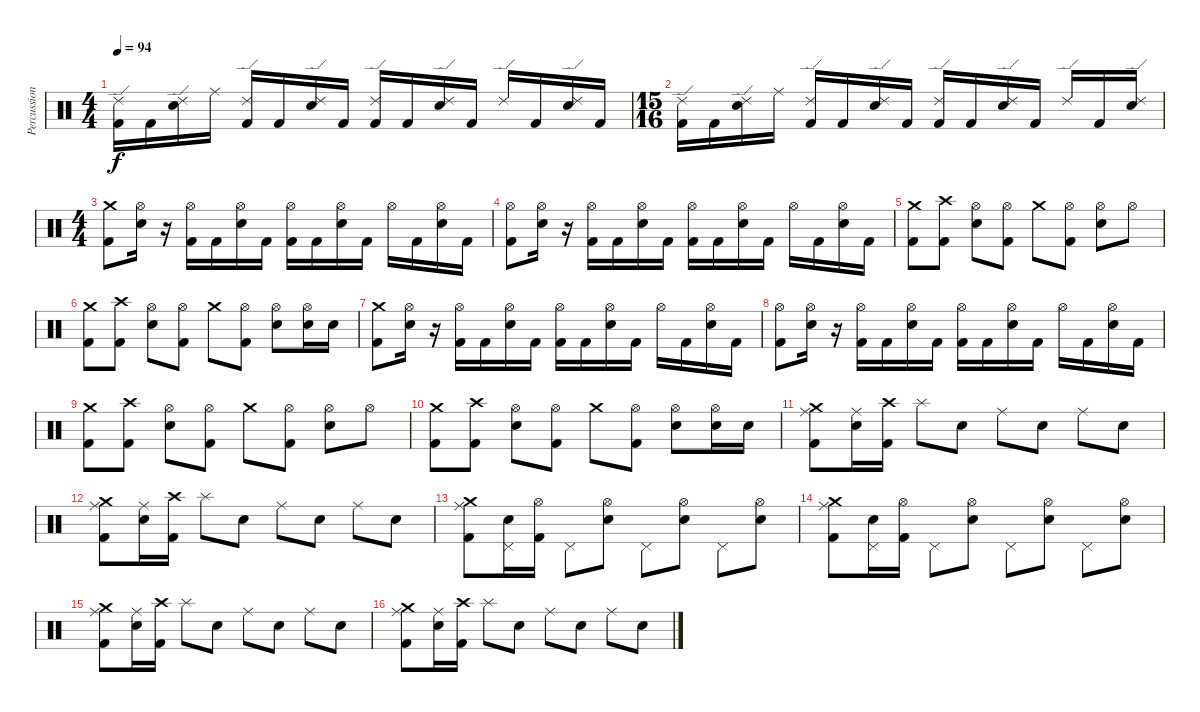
\track ("Percussion" "Percussion") {instrument percussion}
\staff {score}
\articulation defaults
\ts (4 4)
\tempo 94
\clef neutral
\ks c
("Ride (edge) 2" "Kick (hit) 2").16{dy f volume 10} "Kick (hit) 2".16 ("Ride (edge) 2" "Electric Snare (hit)").16 "Ride (middle)".16 ("Ride (edge) 2" "Kick (hit) 2").16 "Kick (hit) 2".16 ("Ride (edge) 2" "Electric Snare (hit)").16 "Kick (hit) 2".16 ("Ride (edge) 2" "Kick (hit) 2").16 "Kick (hit) 2".16 ("Ride (edge) 2" "Electric Snare (hit)").16 "Kick (hit) 2".16 "Ride (edge) 2".16 "Kick (hit) 2".16 ("Ride (edge) 2" "Electric Snare (hit)").16 "Kick (hit) 2".16 |
\ts (15 16)
("Ride (edge) 2" "Kick (hit) 2").16 "Kick (hit) 2".16 ("Ride (edge) 2" "Electric Snare (hit)").16 "Ride (middle)".16 ("Ride (edge) 2" "Kick (hit) 2").16 "Kick (hit) 2".16 ("Ride (edge) 2" "Electric Snare (hit)").16 "Kick (hit) 2".16 ("Ride (edge) 2" "Kick (hit) 2").16 "Kick (hit) 2".16 ("Ride (edge) 2" "Electric Snare (hit)").16 "Kick (hit) 2".16 "Ride (edge) 2".16 "Kick (hit) 2".16 ("Ride (edge) 2" "Electric Snare (hit)").16 |
\ts (4 4)
("Crash medium (hit)" "Kick (hit) 2").8{volume 16} ("Hi-Hat (open)" "Electric Snare (hit)").16 r.16 ("Hi-Hat (open)" "Kick (hit) 2").16 "Kick (hit) 2".16 ("Hi-Hat (open)" "Electric Snare (hit)").16 "Kick (hit) 2".16 ("Hi-Hat (open)" "Kick (hit) 2").16 "Kick (hit) 2".16 ("Hi-Hat (open)" "Electric Snare (hit)").16 "Kick (hit) 2".16 "Hi-Hat (open)".16 "Kick (hit) 2".16 ("Hi-Hat (open)" "Electric Snare (hit)").16 "Kick (hit) 2".16 |
("Hi-Hat (open)" "Kick (hit) 2").8 ("Hi-Hat (open)" "Electric Snare (hit)").16 r.16 ("Hi-Hat (open)" "Kick (hit) 2").16 "Kick (hit) 2".16 ("Hi-Hat (open)" "Electric Snare (hit)").16 "Kick (hit) 2".16 ("Hi-Hat (open)" "Kick (hit) 2").16 "Kick (hit) 2".16 ("Hi-Hat (open)" "Electric Snare (hit)").16 "Kick (hit) 2".16 "Hi-Hat (open)".16 "Kick (hit) 2".16 ("Hi-Hat (open)" "Electric Snare (hit)").16 "Kick (hit) 2".16 |
("Crash medium (hit)" "Kick (hit) 2").8 ("Crash high (hit)" "Kick (hit) 2").8 ("Hi-Hat (open)" "Electric Snare (hit)").8 ("Hi-Hat (open)" "Kick (hit) 2").8 "Crash medium (hit)".8 ("Hi-Hat (open)" "Kick (hit) 2").8 ("Hi-Hat (open)" "Electric Snare (hit)").8 "Hi-Hat (open)".8 |
("Crash medium (hit)" "Kick (hit) 2").8 ("Crash high (hit)" "Kick (hit) 2").8 ("Hi-Hat (open)" "Electric Snare (hit)").8 ("Hi-Hat (open)" "Kick (hit) 2").8 "Crash medium (hit)".8 ("Hi-Hat (open)" "Kick (hit) 2").8 ("Hi-Hat (open)" "Electric Snare (hit)").8 ("Hi-Hat (open)" "Electric Snare (hit)").16 "Electric Snare (hit)".16 |
("Crash medium (hit)" "Kick (hit) 2").8{volume 16} ("Hi-Hat (open)" "Electric Snare (hit)").16 r.16 ("Hi-Hat (open)" "Kick (hit) 2").16 "Kick (hit) 2".16 ("Hi-Hat (open)" "Electric Snare (hit)").16 "Kick (hit) 2".16 ("Hi-Hat (open)" "Kick (hit) 2").16 "Kick (hit) 2".16 ("Hi-Hat (open)" "Electric Snare (hit)").16 "Kick (hit) 2".16 "Hi-Hat (open)".16 "Kick (hit) 2".16 ("Hi-Hat (open)" "Electric Snare (hit)").16 "Kick (hit) 2".16 |
("Hi-Hat (open)" "Kick (hit) 2").8 ("Hi-Hat (open)" "Electric Snare (hit)").16 r.16 ("Hi-Hat (open)" "Kick (hit) 2").16 "Kick (hit) 2".16 ("Hi-Hat (open)" "Electric Snare (hit)").16 "Kick (hit) 2".16 ("Hi-Hat (open)" "Kick (hit) 2").16 "Kick (hit) 2".16 ("Hi-Hat (open)" "Electric Snare (hit)").16 "Kick (hit) 2".16 "Hi-Hat (open)".16 "Kick (hit) 2".16 ("Hi-Hat (open)" "Electric Snare (hit)").16 "Kick (hit) 2".16 |
("Crash medium (hit)" "Kick (hit) 2").8 ("Crash high (hit)" "Kick (hit) 2").8 ("Hi-Hat (open)" "Electric Snare (hit)").8 ("Hi-Hat (open)" "Kick (hit) 2").8 "Crash medium (hit)".8 ("Hi-Hat (open)" "Kick (hit) 2").8 ("Hi-Hat (open)" "Electric Snare (hit)").8 "Hi-Hat (open)".8 |
("Crash medium (hit)" "Kick (hit) 2").8 ("Crash high (hit)" "Kick (hit) 2").8 ("Hi-Hat (open)" "Electric Snare (hit)").8 ("Hi-Hat (open)" "Kick (hit) 2").8 "Crash medium (hit)".8 ("Hi-Hat (open)" "Kick (hit) 2").8 ("Hi-Hat (open)" "Electric Snare (hit)").8 ("Hi-Hat (open)" "Electric Snare (hit)").16 "Electric Snare (hit)".16 |
("Crash medium (hit)" "Ride (middle)" "Kick (hit) 2").8 ("Ride (middle)" "Electric Snare (hit)").16 ("Crash high (hit)" "Kick (hit) 2").16 "Splash (hit)".8 "Electric Snare (hit)".8 "Ride (middle)".8 "Electric Snare (hit)".8 "Ride (middle)".8 "Electric Snare (hit)".8 |
("Crash medium (hit)" "Ride (middle)" "Kick (hit) 2").8 ("Ride (middle)" "Electric Snare (hit)").16 ("Crash high (hit)" "Kick (hit) 2").16 "Splash (hit)".8 "Electric Snare (hit)".8 "Ride (middle)".8 "Electric Snare (hit)".8 "Ride (middle)".8 "Electric Snare (hit)".8 |
("Crash medium (hit)" "Ride (middle)" "Kick (hit) 2").8 ("Pedal Hi-Hat (hit)" "Electric Snare (hit)").16 ("Hi-Hat (open)" "Kick (hit) 2").16 "Pedal Hi-Hat (hit)".8 ("Hi-Hat (open)" "Electric Snare (hit)").8 "Pedal Hi-Hat (hit)".8 ("Hi-Hat (open)" "Electric Snare (hit)").8 "Pedal Hi-Hat (hit)".8 ("Hi-Hat (open)" "Electric Snare (hit)").8 |
("Crash medium (hit)" "Ride (middle)" "Kick (hit) 2").8 ("Pedal Hi-Hat (hit)" "Electric Snare (hit)").16 ("Hi-Hat (open)" "Kick (hit) 2").16 "Pedal Hi-Hat (hit)".8 ("Hi-Hat (open)" "Electric Snare (hit)").8 "Pedal Hi-Hat (hit)".8 ("Hi-Hat (open)" "Electric Snare (hit)").8 "Pedal Hi-Hat (hit)".8 ("Hi-Hat (open)" "Electric Snare (hit)").8 |
("Crash medium (hit)" "Ride (middle)" "Kick (hit) 2").8 ("Ride (middle)" "Electric Snare (hit)").16 ("Crash high (hit)" "Kick (hit) 2").16 "Splash (hit)".8 "Electric Snare (hit)".8 "Ride (middle)".8 "Electric Snare (hit)".8 "Ride (middle)".8 "Electric Snare (hit)".8 |
("Crash medium (hit)" "Ride (middle)" "Kick (hit) 2").8 ("Ride (middle)" "Electric Snare (hit)").16 ("Crash high (hit)" "Kick (hit) 2").16 "Splash (hit)".8 "Electric Snare (hit)".8 "Ride (middle)".8 "Electric Snare (hit)".8 "Ride (middle)".8 "Electric Snare (hit)".8
